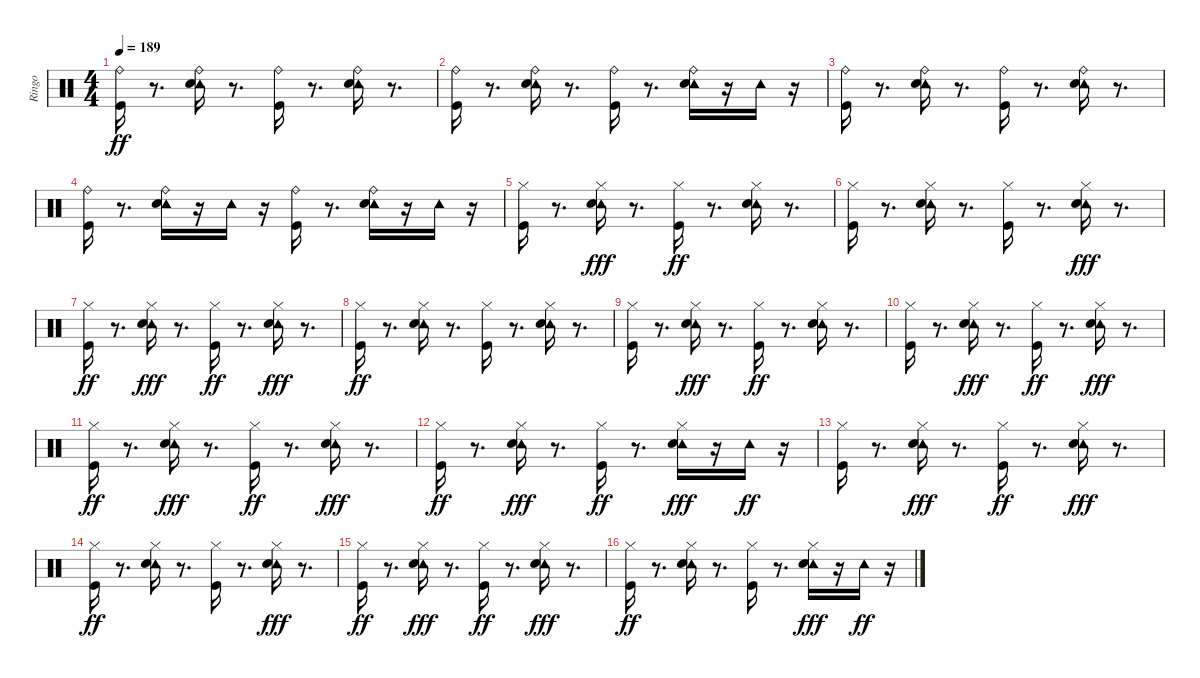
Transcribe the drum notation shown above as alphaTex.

\track ("Ringo" "Ringo") {instrument percussion}
\staff {score}
\articulation defaults
\ts (4 4)
\tempo 189
\clef neutral
\ks c
("Ride (bell)" "Kick (hit)").16{dy ff} r.8{d} ("Tambourine (hit)" "Ride (bell)" "Snare (hit) 2").16 r.8{d} ("Ride (bell)" "Kick (hit)").16 r.8{d} ("Tambourine (hit)" "Ride (bell)" "Snare (hit) 2").16 r.8{d} |
("Ride (bell)" "Kick (hit)").16 r.8{d} ("Tambourine (hit)" "Ride (bell)" "Snare (hit) 2").16 r.8{d} ("Ride (bell)" "Kick (hit)").16 r.8{d} ("Ride (bell)" "Tambourine (hit)" "Snare (hit) 2").16 r.16 "Tambourine (hit)".16 r.16 |
("Ride (bell)" "Kick (hit)").16 r.8{d} ("Tambourine (hit)" "Ride (bell)" "Snare (hit) 2").16 r.8{d} ("Ride (bell)" "Kick (hit)").16 r.8{d} ("Ride (bell)" "Tambourine (hit)" "Snare (hit) 2").16 r.8{d} |
("Ride (bell)" "Kick (hit)").16 r.8{d} ("Ride (bell)" "Tambourine (hit)" "Snare (hit) 2").16 r.16 "Tambourine (hit)".16 r.16 ("Ride (bell)" "Kick (hit)").16 r.8{d} ("Ride (bell)" "Tambourine (hit)" "Snare (hit) 2").16 r.16 "Tambourine (hit)".16 r.16 |
("Hi-Hat (closed)" "Kick (hit)").16 r.8{d} ("Tambourine (hit)" "Hi-Hat (closed)" "Snare (hit) 2").16{dy fff} r.8{d} ("Hi-Hat (closed)" "Kick (hit)").16{dy ff} r.8{d} ("Hi-Hat (closed)" "Tambourine (hit)" "Snare (hit) 2").16 r.8{d} |
("Hi-Hat (closed)" "Kick (hit)").16 r.8{d} ("Hi-Hat (closed)" "Tambourine (hit)" "Snare (hit) 2").16 r.8{d} ("Hi-Hat (closed)" "Kick (hit)").16 r.8{d} ("Tambourine (hit)" "Hi-Hat (closed)" "Snare (hit) 2").16{dy fff} r.8{d} |
("Hi-Hat (closed)" "Kick (hit)").16{dy ff} r.8{d} ("Tambourine (hit)" "Hi-Hat (closed)" "Snare (hit) 2").16{dy fff} r.8{d} ("Hi-Hat (closed)" "Kick (hit)").16{dy ff} r.8{d} ("Tambourine (hit)" "Hi-Hat (closed)" "Snare (hit) 2").16{dy fff} r.8{d} |
("Hi-Hat (closed)" "Kick (hit)").16{dy ff} r.8{d} ("Hi-Hat (closed)" "Tambourine (hit)" "Snare (hit) 2").16 r.8{d} ("Hi-Hat (closed)" "Kick (hit)").16 r.8{d} ("Hi-Hat (closed)" "Tambourine (hit)" "Snare (hit) 2").16 r.8{d} |
("Hi-Hat (closed)" "Kick (hit)").16 r.8{d} ("Tambourine (hit)" "Hi-Hat (closed)" "Snare (hit) 2").16{dy fff} r.8{d} ("Hi-Hat (closed)" "Kick (hit)").16{dy ff} r.8{d} ("Hi-Hat (closed)" "Tambourine (hit)" "Snare (hit) 2").16 r.8{d} |
("Hi-Hat (closed)" "Kick (hit)").16 r.8{d} ("Tambourine (hit)" "Hi-Hat (closed)" "Snare (hit) 2").16{dy fff} r.8{d} ("Hi-Hat (closed)" "Kick (hit)").16{dy ff} r.8{d} ("Tambourine (hit)" "Hi-Hat (closed)" "Snare (hit) 2").16{dy fff} r.8{d} |
("Hi-Hat (closed)" "Kick (hit)").16{dy ff} r.8{d} ("Tambourine (hit)" "Hi-Hat (closed)" "Snare (hit) 2").16{dy fff} r.8{d} ("Hi-Hat (closed)" "Kick (hit)").16{dy ff} r.8{d} ("Tambourine (hit)" "Hi-Hat (closed)" "Snare (hit) 2").16{dy fff} r.8{d} |
("Hi-Hat (closed)" "Kick (hit)").16{dy ff} r.8{d} ("Tambourine (hit)" "Hi-Hat (closed)" "Snare (hit) 2").16{dy fff} r.8{d} ("Hi-Hat (closed)" "Kick (hit)").16{dy ff} r.8{d} ("Tambourine (hit)" "Hi-Hat (closed)" "Snare (hit) 2").16{dy fff} r.16 "Tambourine (hit)".16{dy ff} r.16 |
("Hi-Hat (closed)" "Kick (hit)").16 r.8{d} ("Tambourine (hit)" "Hi-Hat (closed)" "Snare (hit) 2").16{dy fff} r.8{d} ("Hi-Hat (closed)" "Kick (hit)").16{dy ff} r.8{d} ("Tambourine (hit)" "Hi-Hat (closed)" "Snare (hit) 2").16{dy fff} r.8{d} |
("Hi-Hat (closed)" "Kick (hit)").16{dy ff} r.8{d} ("Hi-Hat (closed)" "Tambourine (hit)" "Snare (hit) 2").16 r.8{d} ("Hi-Hat (closed)" "Kick (hit)").16 r.8{d} ("Tambourine (hit)" "Hi-Hat (closed)" "Snare (hit) 2").16{dy fff} r.8{d} |
("Hi-Hat (closed)" "Kick (hit)").16{dy ff} r.8{d} ("Tambourine (hit)" "Hi-Hat (closed)" "Snare (hit) 2").16{dy fff} r.8{d} ("Hi-Hat (closed)" "Kick (hit)").16{dy ff} r.8{d} ("Tambourine (hit)" "Hi-Hat (closed)" "Snare (hit) 2").16{dy fff} r.8{d} |
("Hi-Hat (closed)" "Kick (hit)").16{dy ff} r.8{d} ("Hi-Hat (closed)" "Tambourine (hit)" "Snare (hit) 2").16 r.8{d} ("Hi-Hat (closed)" "Kick (hit)").16 r.8{d} ("Tambourine (hit)" "Hi-Hat (closed)" "Snare (hit) 2").16{dy fff} r.16 "Tambourine (hit)".16{dy ff} r.16
